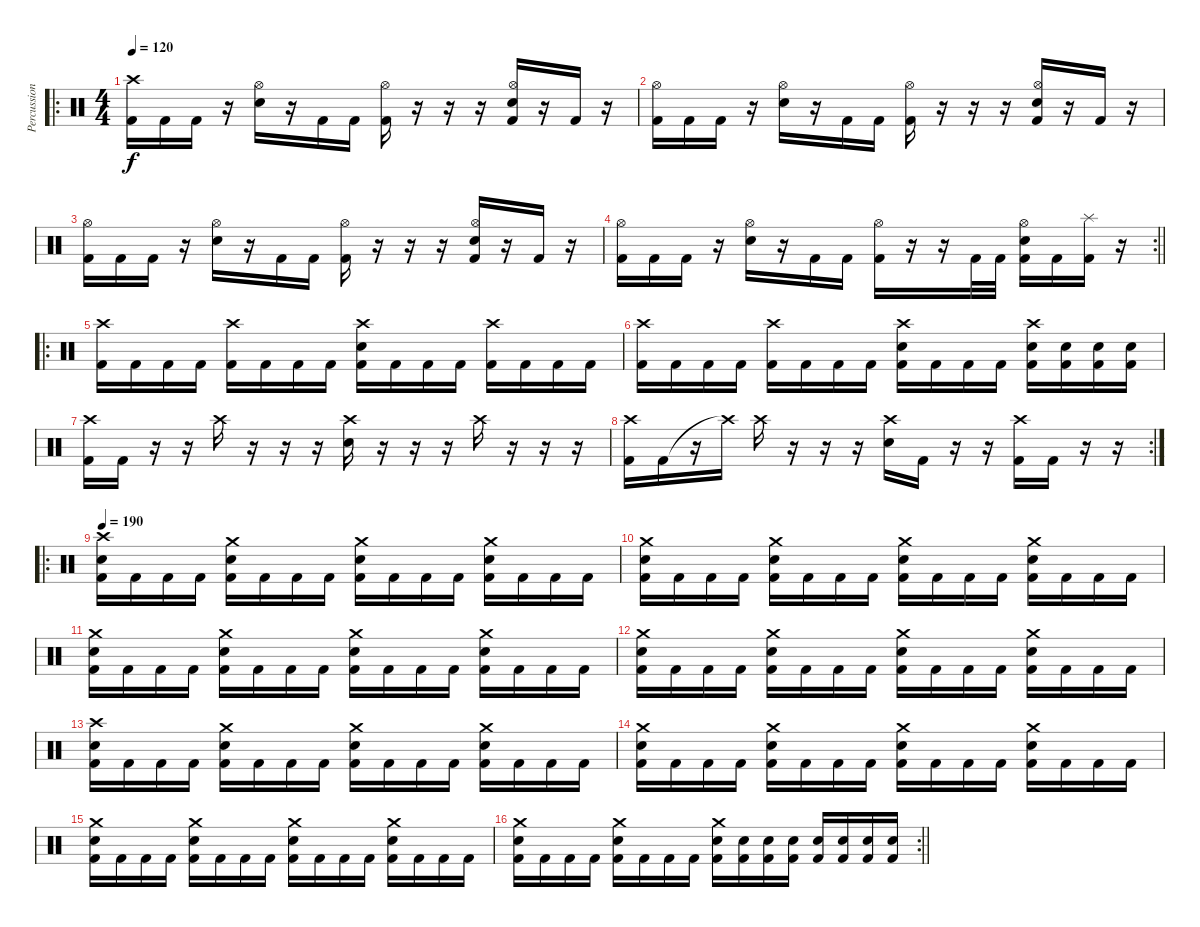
\track ("Percussions" "Percussion") {instrument percussion}
\staff {score}
\articulation defaults
\ro
\ts (4 4)
\tempo 120
\clef neutral
\ks c
("Crash high (hit)" "Kick (hit) 2").16{dy f} "Kick (hit) 2".16 "Kick (hit) 2".16 r.16 ("Hi-Hat (open)" "Electric Snare (hit)").16 r.16 "Kick (hit) 2".16 "Kick (hit) 2".16 ("Hi-Hat (open)" "Kick (hit) 2").16 r.16 r.16 r.16 ("Hi-Hat (open)" "Electric Snare (hit)" "Kick (hit) 2").16 r.16 "Kick (hit) 2".16 r.16 |
("Hi-Hat (open)" "Kick (hit) 2").16 "Kick (hit) 2".16 "Kick (hit) 2".16 r.16 ("Hi-Hat (open)" "Electric Snare (hit)").16 r.16 "Kick (hit) 2".16 "Kick (hit) 2".16 ("Hi-Hat (open)" "Kick (hit) 2").16 r.16 r.16 r.16 ("Hi-Hat (open)" "Electric Snare (hit)" "Kick (hit) 2").16 r.16 "Kick (hit) 2".16 r.16 |
("Hi-Hat (open)" "Kick (hit) 2").16 "Kick (hit) 2".16 "Kick (hit) 2".16 r.16 ("Hi-Hat (open)" "Electric Snare (hit)").16 r.16 "Kick (hit) 2".16 "Kick (hit) 2".16 ("Hi-Hat (open)" "Kick (hit) 2").16 r.16 r.16 r.16 ("Hi-Hat (open)" "Electric Snare (hit)" "Kick (hit) 2").16 r.16 "Kick (hit) 2".16 r.16 |
\rc 2
\barLineRight lightlight
("Hi-Hat (open)" "Kick (hit) 2").16 "Kick (hit) 2".16 "Kick (hit) 2".16 r.16 ("Hi-Hat (open)" "Electric Snare (hit)").16 r.16 "Kick (hit) 2".16 "Kick (hit) 2".16 ("Hi-Hat (open)" "Kick (hit) 2").16 r.16 r.16 "Kick (hit) 2".32 "Kick (hit) 2".32 ("Hi-Hat (open)" "Electric Snare (hit)" "Kick (hit) 2").16 "Kick (hit) 2".16 ("Splash (hit)" "Kick (hit) 2").16 r.16 |
\ro
("Crash high (hit)" "Kick (hit) 2").16 "Kick (hit) 2".16 "Kick (hit) 2".16 "Kick (hit) 2".16 ("Crash high (hit)" "Kick (hit) 2").16 "Kick (hit) 2".16 "Kick (hit) 2".16 "Kick (hit) 2".16 ("Crash high (hit)" "Electric Snare (hit)" "Kick (hit) 2").16 "Kick (hit) 2".16 "Kick (hit) 2".16 "Kick (hit) 2".16 ("Crash high (hit)" "Kick (hit) 2").16 "Kick (hit) 2".16 "Kick (hit) 2".16 "Kick (hit) 2".16 |
("Crash high (hit)" "Kick (hit) 2").16 "Kick (hit) 2".16 "Kick (hit) 2".16 "Kick (hit) 2".16 ("Crash high (hit)" "Kick (hit) 2").16 "Kick (hit) 2".16 "Kick (hit) 2".16 "Kick (hit) 2".16 ("Crash high (hit)" "Electric Snare (hit)" "Kick (hit) 2").16 "Kick (hit) 2".16 "Kick (hit) 2".16 "Kick (hit) 2".16 ("Crash high (hit)" "Electric Snare (hit)" "Kick (hit) 2").16 ("Electric Snare (hit)" "Kick (hit) 2").16 ("Electric Snare (hit)" "Kick (hit) 2").16 ("Electric Snare (hit)" "Kick (hit) 2").16 |
("Crash high (hit)" "Kick (hit) 2").16 "Kick (hit) 2".16 r.16 r.16 "Crash high (hit)".16 r.16 r.16 r.16 ("Crash high (hit)" "Snare (hit) 2").16 r.16 r.16 r.16 "Crash high (hit)".16 r.16 r.16 r.16 |
\rc 2
("Crash high (hit)" "Kick (hit) 2").16 "Kick (hit) 2".16 r.16 "Crash high (hit)"{t}.16 "Crash high (hit)".16 r.16 r.16 r.16 ("Crash high (hit)" "Snare (hit) 2").16 "Kick (hit) 2".16 r.16 r.16 ("Crash high (hit)" "Kick (hit) 2").16 "Kick (hit) 2".16 r.16 r.16 |
\ro
\tempo 190
("Crash high (hit)" "Electric Snare (hit)" "Kick (hit) 2").16 "Kick (hit) 2".16 "Kick (hit) 2".16 "Kick (hit) 2".16 ("Crash medium (hit)" "Electric Snare (hit)" "Kick (hit) 2").16 "Kick (hit) 2".16 "Kick (hit) 2".16 "Kick (hit) 2".16 ("Crash medium (hit)" "Electric Snare (hit)" "Kick (hit) 2").16 "Kick (hit) 2".16 "Kick (hit) 2".16 "Kick (hit) 2".16 ("Crash medium (hit)" "Electric Snare (hit)" "Kick (hit) 2").16 "Kick (hit) 2".16 "Kick (hit) 2".16 "Kick (hit) 2".16 |
("Crash medium (hit)" "Electric Snare (hit)" "Kick (hit) 2").16 "Kick (hit) 2".16 "Kick (hit) 2".16 "Kick (hit) 2".16 ("Crash medium (hit)" "Electric Snare (hit)" "Kick (hit) 2").16 "Kick (hit) 2".16 "Kick (hit) 2".16 "Kick (hit) 2".16 ("Crash medium (hit)" "Electric Snare (hit)" "Kick (hit) 2").16 "Kick (hit) 2".16 "Kick (hit) 2".16 "Kick (hit) 2".16 ("Crash medium (hit)" "Electric Snare (hit)" "Kick (hit) 2").16 "Kick (hit) 2".16 "Kick (hit) 2".16 "Kick (hit) 2".16 |
("Crash medium (hit)" "Electric Snare (hit)" "Kick (hit) 2").16 "Kick (hit) 2".16 "Kick (hit) 2".16 "Kick (hit) 2".16 ("Crash medium (hit)" "Electric Snare (hit)" "Kick (hit) 2").16 "Kick (hit) 2".16 "Kick (hit) 2".16 "Kick (hit) 2".16 ("Crash medium (hit)" "Electric Snare (hit)" "Kick (hit) 2").16 "Kick (hit) 2".16 "Kick (hit) 2".16 "Kick (hit) 2".16 ("Crash medium (hit)" "Electric Snare (hit)" "Kick (hit) 2").16 "Kick (hit) 2".16 "Kick (hit) 2".16 "Kick (hit) 2".16 |
("Crash medium (hit)" "Electric Snare (hit)" "Kick (hit) 2").16 "Kick (hit) 2".16 "Kick (hit) 2".16 "Kick (hit) 2".16 ("Crash medium (hit)" "Electric Snare (hit)" "Kick (hit) 2").16 "Kick (hit) 2".16 "Kick (hit) 2".16 "Kick (hit) 2".16 ("Crash medium (hit)" "Electric Snare (hit)" "Kick (hit) 2").16 "Kick (hit) 2".16 "Kick (hit) 2".16 "Kick (hit) 2".16 ("Crash medium (hit)" "Electric Snare (hit)" "Kick (hit) 2").16 "Kick (hit) 2".16 "Kick (hit) 2".16 "Kick (hit) 2".16 |
("Crash high (hit)" "Electric Snare (hit)" "Kick (hit) 2").16 "Kick (hit) 2".16 "Kick (hit) 2".16 "Kick (hit) 2".16 ("Crash medium (hit)" "Electric Snare (hit)" "Kick (hit) 2").16 "Kick (hit) 2".16 "Kick (hit) 2".16 "Kick (hit) 2".16 ("Crash medium (hit)" "Electric Snare (hit)" "Kick (hit) 2").16 "Kick (hit) 2".16 "Kick (hit) 2".16 "Kick (hit) 2".16 ("Crash medium (hit)" "Electric Snare (hit)" "Kick (hit) 2").16 "Kick (hit) 2".16 "Kick (hit) 2".16 "Kick (hit) 2".16 |
("Crash medium (hit)" "Electric Snare (hit)" "Kick (hit) 2").16 "Kick (hit) 2".16 "Kick (hit) 2".16 "Kick (hit) 2".16 ("Crash medium (hit)" "Electric Snare (hit)" "Kick (hit) 2").16 "Kick (hit) 2".16 "Kick (hit) 2".16 "Kick (hit) 2".16 ("Crash medium (hit)" "Electric Snare (hit)" "Kick (hit) 2").16 "Kick (hit) 2".16 "Kick (hit) 2".16 "Kick (hit) 2".16 ("Crash medium (hit)" "Electric Snare (hit)" "Kick (hit) 2").16 "Kick (hit) 2".16 "Kick (hit) 2".16 "Kick (hit) 2".16 |
("Crash medium (hit)" "Electric Snare (hit)" "Kick (hit) 2").16 "Kick (hit) 2".16 "Kick (hit) 2".16 "Kick (hit) 2".16 ("Crash medium (hit)" "Electric Snare (hit)" "Kick (hit) 2").16 "Kick (hit) 2".16 "Kick (hit) 2".16 "Kick (hit) 2".16 ("Crash medium (hit)" "Electric Snare (hit)" "Kick (hit) 2").16 "Kick (hit) 2".16 "Kick (hit) 2".16 "Kick (hit) 2".16 ("Crash medium (hit)" "Electric Snare (hit)" "Kick (hit) 2").16 "Kick (hit) 2".16 "Kick (hit) 2".16 "Kick (hit) 2".16 |
\rc 2
\barLineRight lightlight
("Crash medium (hit)" "Electric Snare (hit)" "Kick (hit) 2").16 "Kick (hit) 2".16 "Kick (hit) 2".16 "Kick (hit) 2".16 ("Crash medium (hit)" "Electric Snare (hit)" "Kick (hit) 2").16 "Kick (hit) 2".16 "Kick (hit) 2".16 "Kick (hit) 2".16 ("Crash medium (hit)" "Electric Snare (hit)" "Kick (hit) 2").16 ("Electric Snare (hit)" "Kick (hit) 2").16 ("Electric Snare (hit)" "Kick (hit) 2").16 ("Electric Snare (hit)" "Kick (hit) 2").16 ("Electric Snare (hit)" "Kick (hit) 2").16 ("Electric Snare (hit)" "Kick (hit) 2").16 ("Electric Snare (hit)" "Kick (hit) 2").16 ("Electric Snare (hit)" "Kick (hit) 2").16
